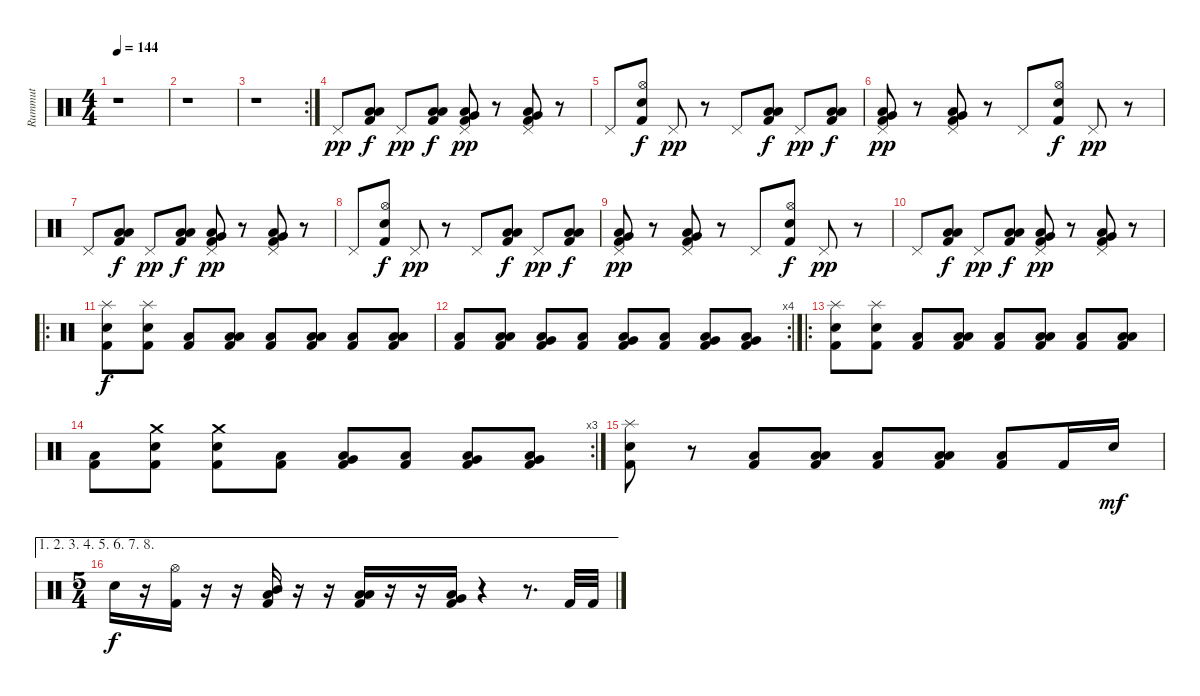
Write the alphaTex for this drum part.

\track ("Rummut" "Rummut") {instrument percussion}
\staff {score}
\articulation defaults
\ts (4 4)
\tempo 144
\clef neutral
\ks c
r.1{dy f} |
r.1 |
\rc 2
r.1 |
"Pedal Hi-Hat (hit)".8{dy pp} ("Low Tom (hit)" "Low Floor Tom (hit)" "Kick (hit) 2").8{dy f} "Pedal Hi-Hat (hit)".8{dy pp} ("Low Tom (hit)" "Low Floor Tom (hit)" "Kick (hit) 2").8{dy f} ("Pedal Hi-Hat (hit)" "Very Low Tom (hit)" "Low Floor Tom (hit)" "Kick (hit) 2").8{dy pp} r.8 ("Pedal Hi-Hat (hit)" "Very Low Tom (hit)" "Low Floor Tom (hit)" "Kick (hit) 2").8 r.8 |
"Pedal Hi-Hat (hit)".8 ("Hi-Hat (open)" "Electric Snare (hit)" "Kick (hit) 2").8{dy f} "Pedal Hi-Hat (hit)".8{dy pp} r.8 "Pedal Hi-Hat (hit)".8 ("Low Tom (hit)" "Low Floor Tom (hit)" "Kick (hit) 2").8{dy f} "Pedal Hi-Hat (hit)".8{dy pp} ("Low Tom (hit)" "Low Floor Tom (hit)" "Kick (hit) 2").8{dy f} |
("Pedal Hi-Hat (hit)" "Very Low Tom (hit)" "Low Floor Tom (hit)" "Kick (hit) 2").8{dy pp} r.8 ("Pedal Hi-Hat (hit)" "Very Low Tom (hit)" "Low Floor Tom (hit)" "Kick (hit) 2").8 r.8 "Pedal Hi-Hat (hit)".8 ("Hi-Hat (open)" "Electric Snare (hit)" "Kick (hit) 2").8{dy f} "Pedal Hi-Hat (hit)".8{dy pp} r.8 |
"Pedal Hi-Hat (hit)".8 ("Low Tom (hit)" "Low Floor Tom (hit)" "Kick (hit) 2").8{dy f} "Pedal Hi-Hat (hit)".8{dy pp} ("Low Tom (hit)" "Low Floor Tom (hit)" "Kick (hit) 2").8{dy f} ("Pedal Hi-Hat (hit)" "Very Low Tom (hit)" "Low Floor Tom (hit)" "Kick (hit) 2").8{dy pp} r.8 ("Pedal Hi-Hat (hit)" "Very Low Tom (hit)" "Low Floor Tom (hit)" "Kick (hit) 2").8 r.8 |
"Pedal Hi-Hat (hit)".8 ("Hi-Hat (open)" "Electric Snare (hit)" "Kick (hit) 2").8{dy f} "Pedal Hi-Hat (hit)".8{dy pp} r.8 "Pedal Hi-Hat (hit)".8 ("Low Tom (hit)" "Low Floor Tom (hit)" "Kick (hit) 2").8{dy f} "Pedal Hi-Hat (hit)".8{dy pp} ("Low Tom (hit)" "Low Floor Tom (hit)" "Kick (hit) 2").8{dy f} |
("Pedal Hi-Hat (hit)" "Very Low Tom (hit)" "Low Floor Tom (hit)" "Kick (hit) 2").8{dy pp} r.8 ("Pedal Hi-Hat (hit)" "Very Low Tom (hit)" "Low Floor Tom (hit)" "Kick (hit) 2").8 r.8 "Pedal Hi-Hat (hit)".8 ("Hi-Hat (open)" "Electric Snare (hit)" "Kick (hit) 2").8{dy f} "Pedal Hi-Hat (hit)".8{dy pp} r.8 |
"Pedal Hi-Hat (hit)".8 ("Low Tom (hit)" "Low Floor Tom (hit)" "Kick (hit) 2").8{dy f} "Pedal Hi-Hat (hit)".8{dy pp} ("Low Tom (hit)" "Low Floor Tom (hit)" "Kick (hit) 2").8{dy f} ("Pedal Hi-Hat (hit)" "Very Low Tom (hit)" "Low Floor Tom (hit)" "Kick (hit) 2").8{dy pp} r.8 ("Pedal Hi-Hat (hit)" "Very Low Tom (hit)" "Low Floor Tom (hit)" "Kick (hit) 2").8 r.8 |
\ro
("Splash (hit)" "Electric Snare (hit)" "Kick (hit) 2").8{dy f} ("Splash (hit)" "Electric Snare (hit)" "Kick (hit) 2").8 ("Low Floor Tom (hit)" "Kick (hit) 2").8 ("Low Tom (hit)" "Low Floor Tom (hit)" "Kick (hit) 2").8 ("Low Floor Tom (hit)" "Kick (hit) 2").8 ("Low Tom (hit)" "Low Floor Tom (hit)" "Kick (hit) 2").8 ("Low Floor Tom (hit)" "Kick (hit) 2").8 ("Low Tom (hit)" "Low Floor Tom (hit)" "Kick (hit) 2").8 |
\rc 4
("Low Floor Tom (hit)" "Kick (hit) 2").8 ("Low Tom (hit)" "Low Floor Tom (hit)" "Kick (hit) 2").8 ("Very Low Tom (hit)" "Low Floor Tom (hit)" "Kick (hit) 2").8 ("Low Floor Tom (hit)" "Kick (hit) 2").8 ("Very Low Tom (hit)" "Low Floor Tom (hit)" "Kick (hit) 2").8 ("Low Floor Tom (hit)" "Kick (hit) 2").8 ("Very Low Tom (hit)" "Low Floor Tom (hit)" "Kick (hit) 2").8 ("Very Low Tom (hit)" "Low Floor Tom (hit)" "Kick (hit) 2").8 |
\ro
("Splash (hit)" "Electric Snare (hit)" "Kick (hit) 2").8 ("Splash (hit)" "Electric Snare (hit)" "Kick (hit) 2").8 ("Low Floor Tom (hit)" "Kick (hit) 2").8 ("Low Tom (hit)" "Low Floor Tom (hit)" "Kick (hit) 2").8 ("Low Floor Tom (hit)" "Kick (hit) 2").8 ("Low Tom (hit)" "Low Floor Tom (hit)" "Kick (hit) 2").8 ("Low Floor Tom (hit)" "Kick (hit) 2").8 ("Low Tom (hit)" "Low Floor Tom (hit)" "Kick (hit) 2").8 |
\rc 3
("Low Floor Tom (hit)" "Kick (hit) 2").8 ("Crash medium (hit)" "Electric Snare (hit)" "Kick (hit) 2").8 ("Crash medium (hit)" "Electric Snare (hit)" "Kick (hit) 2").8 ("Low Floor Tom (hit)" "Kick (hit) 2").8 ("Very Low Tom (hit)" "Low Floor Tom (hit)" "Kick (hit) 2").8 ("Low Floor Tom (hit)" "Kick (hit) 2").8 ("Very Low Tom (hit)" "Low Floor Tom (hit)" "Kick (hit) 2").8 ("Very Low Tom (hit)" "Low Floor Tom (hit)" "Kick (hit) 2").8 |
("Splash (hit)" "Electric Snare (hit)" "Kick (hit) 2").8 r.8 ("Low Floor Tom (hit)" "Kick (hit) 2").8 ("Low Tom (hit)" "Low Floor Tom (hit)" "Kick (hit) 2").8 ("Low Floor Tom (hit)" "Kick (hit) 2").8 ("Low Tom (hit)" "Low Floor Tom (hit)" "Kick (hit) 2").8 ("Low Floor Tom (hit)" "Kick (hit) 2").8 "Kick (hit) 2".16 "Electric Snare (hit)".16{dy mf} |
\ae (1 2 3 4 5 6 7 8)
\ts (5 4)
"Electric Snare (hit)".16{dy f} r.16 ("Hi-Hat (open)" "Kick (hit) 2").16 r.16 r.16 ("Mid Tom (hit)" "Low Floor Tom (hit)" "Kick (hit) 2").16 r.16 r.16 ("Low Tom (hit)" "Low Floor Tom (hit)" "Kick (hit) 2").16 r.16 r.16 ("Very Low Tom (hit)" "Low Floor Tom (hit)" "Kick (hit) 2").16 r.4 r.8{d} "Kick (hit) 2".32 "Kick (hit) 2".32
